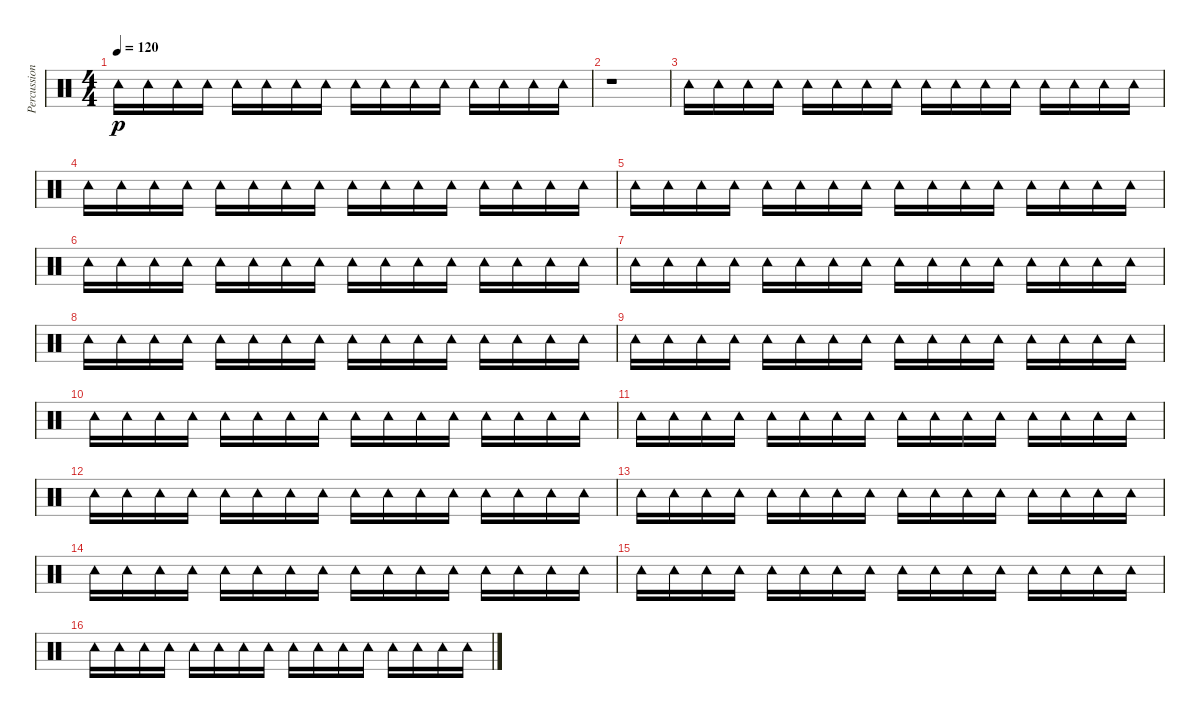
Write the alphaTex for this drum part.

\track ("Percussions" "Percussion") {instrument percussion}
\staff {score}
\articulation defaults
\ts (4 4)
\tempo 120
\clef neutral
\ks c "Tambourine (hit)".16{dy p} "Tambourine (hit)".16 "Tambourine (hit)".16 "Tambourine (hit)".16 "Tambourine (hit)".16 "Tambourine (hit)".16 "Tambourine (hit)".16 "Tambourine (hit)".16 "Tambourine (hit)".16 "Tambourine (hit)".16 "Tambourine (hit)".16 "Tambourine (hit)".16 "Tambourine (hit)".16 "Tambourine (hit)".16 "Tambourine (hit)".16 "Tambourine (hit)".16
|
r.1 |
"Tambourine (hit)".16 "Tambourine (hit)".16 "Tambourine (hit)".16 "Tambourine (hit)".16 "Tambourine (hit)".16 "Tambourine (hit)".16 "Tambourine (hit)".16 "Tambourine (hit)".16 "Tambourine (hit)".16 "Tambourine (hit)".16 "Tambourine (hit)".16 "Tambourine (hit)".16 "Tambourine (hit)".16 "Tambourine (hit)".16 "Tambourine (hit)".16 "Tambourine (hit)".16 |
"Tambourine (hit)".16 "Tambourine (hit)".16 "Tambourine (hit)".16 "Tambourine (hit)".16 "Tambourine (hit)".16 "Tambourine (hit)".16 "Tambourine (hit)".16 "Tambourine (hit)".16 "Tambourine (hit)".16 "Tambourine (hit)".16 "Tambourine (hit)".16 "Tambourine (hit)".16 "Tambourine (hit)".16 "Tambourine (hit)".16 "Tambourine (hit)".16 "Tambourine (hit)".16 |
"Tambourine (hit)".16 "Tambourine (hit)".16 "Tambourine (hit)".16 "Tambourine (hit)".16 "Tambourine (hit)".16 "Tambourine (hit)".16 "Tambourine (hit)".16 "Tambourine (hit)".16 "Tambourine (hit)".16 "Tambourine (hit)".16 "Tambourine (hit)".16 "Tambourine (hit)".16 "Tambourine (hit)".16 "Tambourine (hit)".16 "Tambourine (hit)".16 "Tambourine (hit)".16 |
"Tambourine (hit)".16 "Tambourine (hit)".16 "Tambourine (hit)".16 "Tambourine (hit)".16 "Tambourine (hit)".16 "Tambourine (hit)".16 "Tambourine (hit)".16 "Tambourine (hit)".16 "Tambourine (hit)".16 "Tambourine (hit)".16 "Tambourine (hit)".16 "Tambourine (hit)".16 "Tambourine (hit)".16 "Tambourine (hit)".16 "Tambourine (hit)".16 "Tambourine (hit)".16 |
"Tambourine (hit)".16 "Tambourine (hit)".16 "Tambourine (hit)".16 "Tambourine (hit)".16 "Tambourine (hit)".16 "Tambourine (hit)".16 "Tambourine (hit)".16 "Tambourine (hit)".16 "Tambourine (hit)".16 "Tambourine (hit)".16 "Tambourine (hit)".16 "Tambourine (hit)".16 "Tambourine (hit)".16 "Tambourine (hit)".16 "Tambourine (hit)".16 "Tambourine (hit)".16 |
"Tambourine (hit)".16 "Tambourine (hit)".16 "Tambourine (hit)".16 "Tambourine (hit)".16 "Tambourine (hit)".16 "Tambourine (hit)".16 "Tambourine (hit)".16 "Tambourine (hit)".16 "Tambourine (hit)".16 "Tambourine (hit)".16 "Tambourine (hit)".16 "Tambourine (hit)".16 "Tambourine (hit)".16 "Tambourine (hit)".16 "Tambourine (hit)".16 "Tambourine (hit)".16 |
"Tambourine (hit)".16 "Tambourine (hit)".16 "Tambourine (hit)".16 "Tambourine (hit)".16 "Tambourine (hit)".16 "Tambourine (hit)".16 "Tambourine (hit)".16 "Tambourine (hit)".16 "Tambourine (hit)".16 "Tambourine (hit)".16 "Tambourine (hit)".16 "Tambourine (hit)".16 "Tambourine (hit)".16 "Tambourine (hit)".16 "Tambourine (hit)".16 "Tambourine (hit)".16 |
"Tambourine (hit)".16 "Tambourine (hit)".16 "Tambourine (hit)".16 "Tambourine (hit)".16 "Tambourine (hit)".16 "Tambourine (hit)".16 "Tambourine (hit)".16 "Tambourine (hit)".16 "Tambourine (hit)".16 "Tambourine (hit)".16 "Tambourine (hit)".16 "Tambourine (hit)".16 "Tambourine (hit)".16 "Tambourine (hit)".16 "Tambourine (hit)".16 "Tambourine (hit)".16 |
"Tambourine (hit)".16 "Tambourine (hit)".16 "Tambourine (hit)".16 "Tambourine (hit)".16 "Tambourine (hit)".16 "Tambourine (hit)".16 "Tambourine (hit)".16 "Tambourine (hit)".16 "Tambourine (hit)".16 "Tambourine (hit)".16 "Tambourine (hit)".16 "Tambourine (hit)".16 "Tambourine (hit)".16 "Tambourine (hit)".16 "Tambourine (hit)".16 "Tambourine (hit)".16 |
"Tambourine (hit)".16 "Tambourine (hit)".16 "Tambourine (hit)".16 "Tambourine (hit)".16 "Tambourine (hit)".16 "Tambourine (hit)".16 "Tambourine (hit)".16 "Tambourine (hit)".16 "Tambourine (hit)".16 "Tambourine (hit)".16 "Tambourine (hit)".16 "Tambourine (hit)".16 "Tambourine (hit)".16 "Tambourine (hit)".16 "Tambourine (hit)".16 "Tambourine (hit)".16 |
"Tambourine (hit)".16 "Tambourine (hit)".16 "Tambourine (hit)".16 "Tambourine (hit)".16 "Tambourine (hit)".16 "Tambourine (hit)".16 "Tambourine (hit)".16 "Tambourine (hit)".16 "Tambourine (hit)".16 "Tambourine (hit)".16 "Tambourine (hit)".16 "Tambourine (hit)".16 "Tambourine (hit)".16 "Tambourine (hit)".16 "Tambourine (hit)".16 "Tambourine (hit)".16 |
"Tambourine (hit)".16 "Tambourine (hit)".16 "Tambourine (hit)".16 "Tambourine (hit)".16 "Tambourine (hit)".16 "Tambourine (hit)".16 "Tambourine (hit)".16 "Tambourine (hit)".16 "Tambourine (hit)".16 "Tambourine (hit)".16 "Tambourine (hit)".16 "Tambourine (hit)".16 "Tambourine (hit)".16 "Tambourine (hit)".16 "Tambourine (hit)".16 "Tambourine (hit)".16 |
"Tambourine (hit)".16 "Tambourine (hit)".16 "Tambourine (hit)".16 "Tambourine (hit)".16 "Tambourine (hit)".16 "Tambourine (hit)".16 "Tambourine (hit)".16 "Tambourine (hit)".16 "Tambourine (hit)".16 "Tambourine (hit)".16 "Tambourine (hit)".16 "Tambourine (hit)".16 "Tambourine (hit)".16 "Tambourine (hit)".16 "Tambourine (hit)".16 "Tambourine (hit)".16 |
"Tambourine (hit)".16 "Tambourine (hit)".16 "Tambourine (hit)".16 "Tambourine (hit)".16 "Tambourine (hit)".16 "Tambourine (hit)".16 "Tambourine (hit)".16 "Tambourine (hit)".16 "Tambourine (hit)".16 "Tambourine (hit)".16 "Tambourine (hit)".16 "Tambourine (hit)".16 "Tambourine (hit)".16 "Tambourine (hit)".16 "Tambourine (hit)".16 "Tambourine (hit)".16
